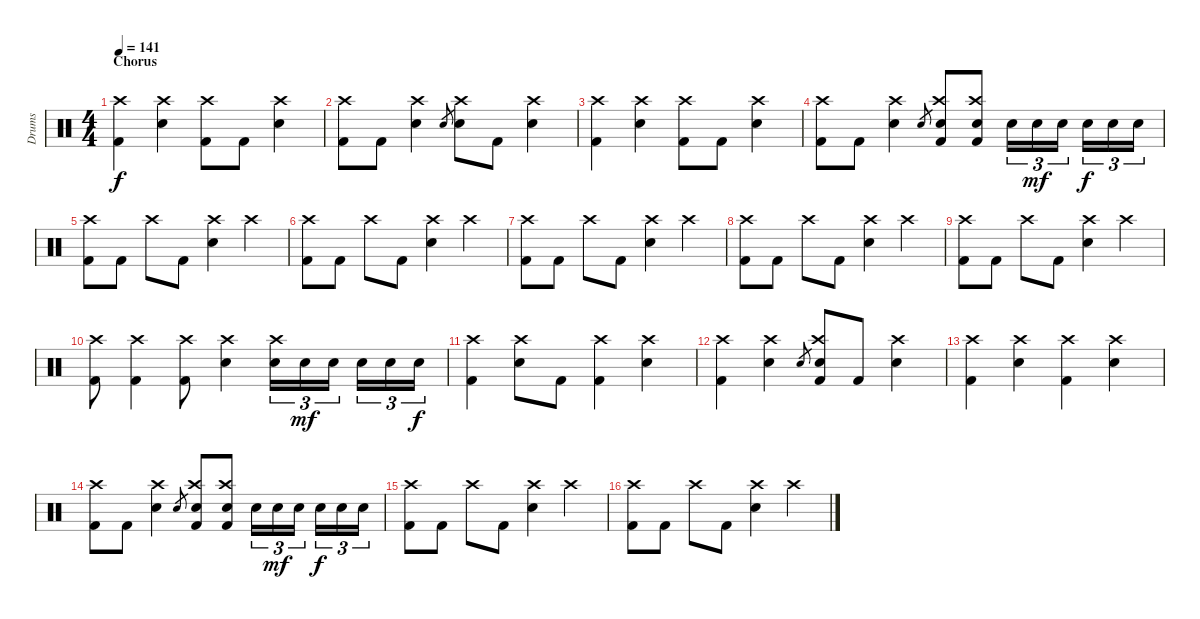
\track ("Drums" "Drums") {instrument percussion}
\staff {score}
\articulation defaults
\ts (4 4)
\section ("" "Chorus")
\tempo 141
\clef neutral
\ks c
("Kick (hit) 2" "Crash high (hit)").4{dy f} ("Electric Snare (hit)" "Crash high (hit)").4 ("Kick (hit) 2" "Crash high (hit)").8 "Kick (hit) 2".8 ("Electric Snare (hit)" "Crash high (hit)").4 |
("Kick (hit) 2" "Crash high (hit)").8 "Kick (hit) 2".8 ("Electric Snare (hit)" "Crash high (hit)").4 "Electric Snare (hit)".8{gr} ("Electric Snare (hit)" "Crash high (hit)").8 "Kick (hit) 2".8 ("Electric Snare (hit)" "Crash high (hit)").4 |
("Kick (hit) 2" "Crash high (hit)").4 ("Electric Snare (hit)" "Crash high (hit)").4 ("Kick (hit) 2" "Crash high (hit)").8 "Kick (hit) 2".8 ("Electric Snare (hit)" "Crash high (hit)").4 |
("Kick (hit) 2" "Crash high (hit)").8 "Kick (hit) 2".8 ("Electric Snare (hit)" "Crash high (hit)").4 "Electric Snare (hit)".8{gr} ("Kick (hit) 2" "Electric Snare (hit)" "Crash high (hit)").8 ("Kick (hit) 2" "Electric Snare (hit)" "Crash high (hit)").8 "Electric Snare (hit)".16{tu (3 2)} "Electric Snare (hit)".16{tu (3 2) dy mf} "Electric Snare (hit)".16{tu (3 2) beam splitsecondary} "Electric Snare (hit)".16{tu (3 2) dy f} "Electric Snare (hit)".16{tu (3 2)} "Electric Snare (hit)".16{tu (3 2)} |
("Kick (hit) 2" "Crash high (hit)").8 "Kick (hit) 2".8 "Crash high (hit)".8 "Kick (hit) 2".8 ("Electric Snare (hit)" "Crash high (hit)").4 "Crash high (hit)".4 |
("Kick (hit) 2" "Crash high (hit)").8 "Kick (hit) 2".8 "Crash high (hit)".8 "Kick (hit) 2".8 ("Electric Snare (hit)" "Crash high (hit)").4 "Crash high (hit)".4 |
("Kick (hit) 2" "Crash high (hit)").8 "Kick (hit) 2".8 "Crash high (hit)".8 "Kick (hit) 2".8 ("Electric Snare (hit)" "Crash high (hit)").4 "Crash high (hit)".4 |
("Kick (hit) 2" "Crash high (hit)").8 "Kick (hit) 2".8 "Crash high (hit)".8 "Kick (hit) 2".8 ("Electric Snare (hit)" "Crash high (hit)").4 "Crash high (hit)".4 |
("Kick (hit) 2" "Crash high (hit)").8 "Kick (hit) 2".8 "Crash high (hit)".8 "Kick (hit) 2".8 ("Electric Snare (hit)" "Crash high (hit)").4 "Crash high (hit)".4 |
("Kick (hit) 2" "Crash high (hit)").8 ("Kick (hit) 2" "Crash high (hit)").4 ("Kick (hit) 2" "Crash high (hit)").8 ("Electric Snare (hit)" "Crash high (hit)").4 ("Electric Snare (hit)" "Crash high (hit)").16{tu (3 2)} "Electric Snare (hit)".16{tu (3 2) dy mf} "Electric Snare (hit)".16{tu (3 2) beam splitsecondary} "Electric Snare (hit)".16{tu (3 2)} "Electric Snare (hit)".16{tu (3 2)} "Electric Snare (hit)".16{tu (3 2) dy f} |
("Kick (hit) 2" "Crash high (hit)").4 ("Electric Snare (hit)" "Crash high (hit)").8 "Kick (hit) 2".8 ("Kick (hit) 2" "Crash high (hit)").4 ("Electric Snare (hit)" "Crash high (hit)").4 |
("Kick (hit) 2" "Crash high (hit)").4 ("Electric Snare (hit)" "Crash high (hit)").4 "Electric Snare (hit)".8{gr} ("Kick (hit) 2" "Electric Snare (hit)" "Crash high (hit)").8 "Kick (hit) 2".8 ("Electric Snare (hit)" "Crash high (hit)").4 |
("Kick (hit) 2" "Crash high (hit)").4 ("Electric Snare (hit)" "Crash high (hit)").4 ("Kick (hit) 2" "Crash high (hit)").4 ("Electric Snare (hit)" "Crash high (hit)").4 |
("Kick (hit) 2" "Crash high (hit)").8 "Kick (hit) 2".8 ("Electric Snare (hit)" "Crash high (hit)").4 "Electric Snare (hit)".8{gr} ("Kick (hit) 2" "Electric Snare (hit)" "Crash high (hit)").8 ("Kick (hit) 2" "Electric Snare (hit)" "Crash high (hit)").8 "Electric Snare (hit)".16{tu (3 2)} "Electric Snare (hit)".16{tu (3 2) dy mf} "Electric Snare (hit)".16{tu (3 2) beam splitsecondary} "Electric Snare (hit)".16{tu (3 2) dy f} "Electric Snare (hit)".16{tu (3 2)} "Electric Snare (hit)".16{tu (3 2)} |
("Kick (hit) 2" "Crash high (hit)").8 "Kick (hit) 2".8 "Crash high (hit)".8 "Kick (hit) 2".8 ("Electric Snare (hit)" "Crash high (hit)").4 "Crash high (hit)".4 |
("Kick (hit) 2" "Crash high (hit)").8 "Kick (hit) 2".8 "Crash high (hit)".8 "Kick (hit) 2".8 ("Electric Snare (hit)" "Crash high (hit)").4 "Crash high (hit)".4
